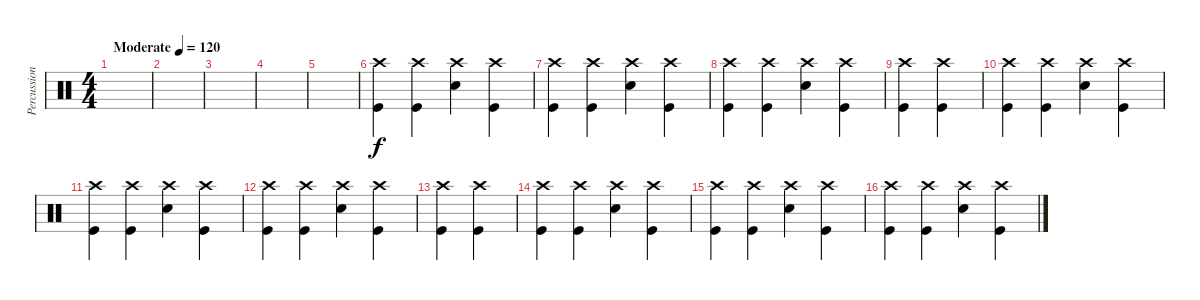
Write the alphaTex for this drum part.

\track ("Percussion" "Percussion") {instrument percussion}
\staff {score}
\articulation defaults
\ts (4 4)
\tempo (120 "Moderate")
\clef neutral
\ks c
|
|
|
|
|
("Crash high (hit)" "Kick (hit)").4 ("Crash high (hit)" "Kick (hit)").4 ("Crash high (hit)" "Snare (hit) 2").4 ("Crash high (hit)" "Kick (hit)").4 |
("Crash high (hit)" "Kick (hit)").4 ("Crash high (hit)" "Kick (hit)").4 ("Crash high (hit)" "Snare (hit) 2").4 ("Crash high (hit)" "Kick (hit)").4 |
("Crash high (hit)" "Kick (hit)").4 ("Crash high (hit)" "Kick (hit)").4 ("Crash high (hit)" "Snare (hit) 2").4 ("Crash high (hit)" "Kick (hit)").4 |
("Crash high (hit)" "Kick (hit)").4 ("Crash high (hit)" "Kick (hit)").4 |
("Crash high (hit)" "Kick (hit)").4 ("Crash high (hit)" "Kick (hit)").4 ("Crash high (hit)" "Snare (hit) 2").4 ("Crash high (hit)" "Kick (hit)").4 |
("Crash high (hit)" "Kick (hit)").4 ("Crash high (hit)" "Kick (hit)").4 ("Crash high (hit)" "Snare (hit) 2").4 ("Crash high (hit)" "Kick (hit)").4 |
("Crash high (hit)" "Kick (hit)").4 ("Crash high (hit)" "Kick (hit)").4 ("Crash high (hit)" "Snare (hit) 2").4 ("Crash high (hit)" "Kick (hit)").4 |
("Crash high (hit)" "Kick (hit)").4 ("Crash high (hit)" "Kick (hit)").4 |
("Crash high (hit)" "Kick (hit)").4 ("Crash high (hit)" "Kick (hit)").4 ("Crash high (hit)" "Snare (hit) 2").4 ("Crash high (hit)" "Kick (hit)").4 |
("Crash high (hit)" "Kick (hit)").4 ("Crash high (hit)" "Kick (hit)").4 ("Crash high (hit)" "Snare (hit) 2").4 ("Crash high (hit)" "Kick (hit)").4 |
("Crash high (hit)" "Kick (hit)").4 ("Crash high (hit)" "Kick (hit)").4 ("Crash high (hit)" "Snare (hit) 2").4 ("Crash high (hit)" "Kick (hit)").4
